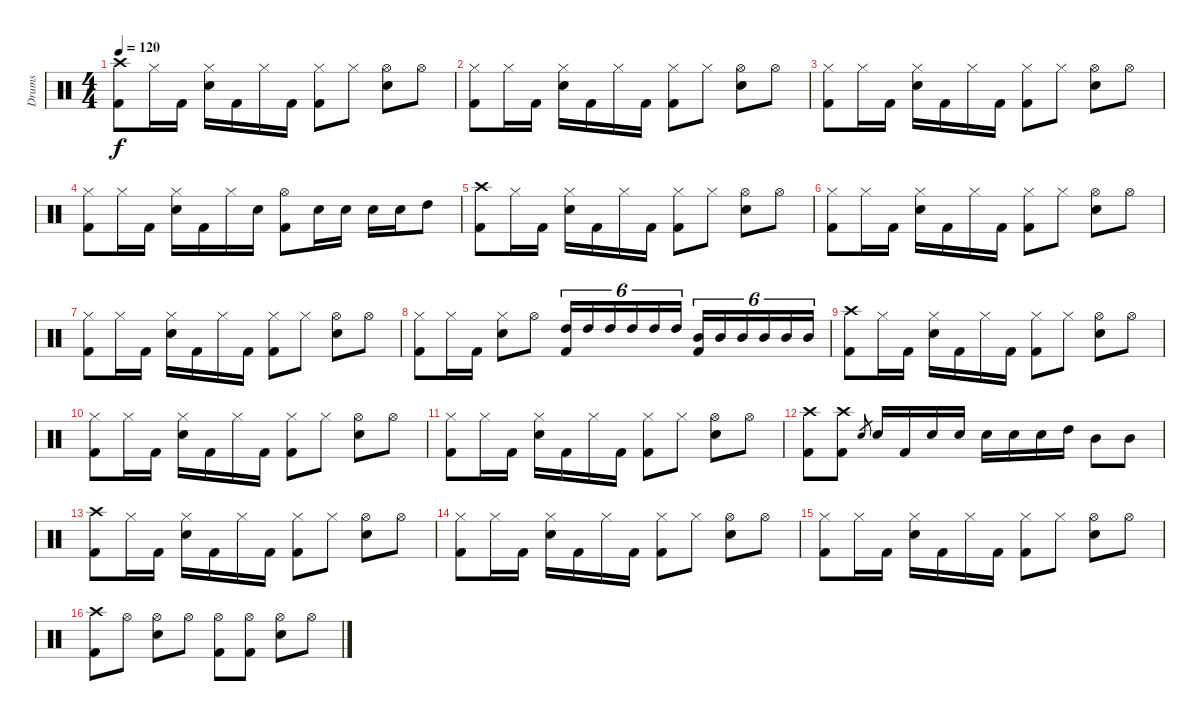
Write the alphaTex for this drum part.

\track ("Drums" "Drums") {instrument percussion}
\staff {score}
\articulation defaults
\ts (4 4)
\tempo 120
\clef neutral
\ks c
("Crash high (hit)" "Kick (hit) 2").8{dy f} "Hi-Hat (closed)".16 "Kick (hit) 2".16 ("Hi-Hat (closed)" "Electric Snare (hit)").16 "Kick (hit) 2".16 "Hi-Hat (closed)".16 "Kick (hit) 2".16 ("Hi-Hat (closed)" "Kick (hit) 2").8 "Hi-Hat (closed)".8 ("Hi-Hat (open)" "Electric Snare (hit)").8 "Hi-Hat (open)".8 |
("Hi-Hat (closed)" "Kick (hit) 2").8 "Hi-Hat (closed)".16 "Kick (hit) 2".16 ("Hi-Hat (closed)" "Electric Snare (hit)").16 "Kick (hit) 2".16 "Hi-Hat (closed)".16 "Kick (hit) 2".16 ("Hi-Hat (closed)" "Kick (hit) 2").8 "Hi-Hat (closed)".8 ("Hi-Hat (open)" "Electric Snare (hit)").8 "Hi-Hat (open)".8 |
("Hi-Hat (closed)" "Kick (hit) 2").8 "Hi-Hat (closed)".16 "Kick (hit) 2".16 ("Hi-Hat (closed)" "Electric Snare (hit)").16 "Kick (hit) 2".16 "Hi-Hat (closed)".16 "Kick (hit) 2".16 ("Hi-Hat (closed)" "Kick (hit) 2").8 "Hi-Hat (closed)".8 ("Hi-Hat (open)" "Electric Snare (hit)").8 "Hi-Hat (open)".8 |
("Hi-Hat (closed)" "Kick (hit) 2").8 "Hi-Hat (closed)".16 "Kick (hit) 2".16 ("Hi-Hat (closed)" "Electric Snare (hit)").16 "Kick (hit) 2".16 "Hi-Hat (closed)".16 "Electric Snare (hit)".16 ("Hi-Hat (open)" "Kick (hit) 2").8 "Electric Snare (hit)".16 "Electric Snare (hit)".16 "Electric Snare (hit)".16 "Electric Snare (hit)".16 "High Tom (hit)".8 |
("Crash high (hit)" "Kick (hit) 2").8 "Hi-Hat (closed)".16 "Kick (hit) 2".16 ("Hi-Hat (closed)" "Electric Snare (hit)").16 "Kick (hit) 2".16 "Hi-Hat (closed)".16 "Kick (hit) 2".16 ("Hi-Hat (closed)" "Kick (hit) 2").8 "Hi-Hat (closed)".8 ("Hi-Hat (open)" "Electric Snare (hit)").8 "Hi-Hat (open)".8 |
("Hi-Hat (closed)" "Kick (hit) 2").8 "Hi-Hat (closed)".16 "Kick (hit) 2".16 ("Hi-Hat (closed)" "Electric Snare (hit)").16 "Kick (hit) 2".16 "Hi-Hat (closed)".16 "Kick (hit) 2".16 ("Hi-Hat (closed)" "Kick (hit) 2").8 "Hi-Hat (closed)".8 ("Hi-Hat (open)" "Electric Snare (hit)").8 "Hi-Hat (open)".8 |
("Hi-Hat (closed)" "Kick (hit) 2").8 "Hi-Hat (closed)".16 "Kick (hit) 2".16 ("Hi-Hat (closed)" "Electric Snare (hit)").16 "Kick (hit) 2".16 "Hi-Hat (closed)".16 "Kick (hit) 2".16 ("Hi-Hat (closed)" "Kick (hit) 2").8 "Hi-Hat (closed)".8 ("Hi-Hat (open)" "Electric Snare (hit)").8 "Hi-Hat (open)".8 |
("Hi-Hat (closed)" "Kick (hit) 2").8 "Hi-Hat (closed)".16 "Kick (hit) 2".16 ("Hi-Hat (closed)" "Electric Snare (hit)").8 "Hi-Hat (open)".8 ("High Tom (hit)" "Kick (hit) 2").16{tu (6 4)} "High Tom (hit)".16{tu (6 4)} "High Tom (hit)".16{tu (6 4)} "High Tom (hit)".16{tu (6 4)} "High Tom (hit)".16{tu (6 4)} "High Tom (hit)".16{tu (6 4)} ("Mid Tom (hit)" "Kick (hit) 2").16{tu (6 4)} "Mid Tom (hit)".16{tu (6 4)} "Mid Tom (hit)".16{tu (6 4)} "Mid Tom (hit)".16{tu (6 4)} "Mid Tom (hit)".16{tu (6 4)} "Mid Tom (hit)".16{tu (6 4)} |
("Crash high (hit)" "Kick (hit) 2").8 "Hi-Hat (closed)".16 "Kick (hit) 2".16 ("Hi-Hat (closed)" "Electric Snare (hit)").16 "Kick (hit) 2".16 "Hi-Hat (closed)".16 "Kick (hit) 2".16 ("Hi-Hat (closed)" "Kick (hit) 2").8 "Hi-Hat (closed)".8 ("Hi-Hat (open)" "Electric Snare (hit)").8 "Hi-Hat (open)".8 |
("Hi-Hat (closed)" "Kick (hit) 2").8 "Hi-Hat (closed)".16 "Kick (hit) 2".16 ("Hi-Hat (closed)" "Electric Snare (hit)").16 "Kick (hit) 2".16 "Hi-Hat (closed)".16 "Kick (hit) 2".16 ("Hi-Hat (closed)" "Kick (hit) 2").8 "Hi-Hat (closed)".8 ("Hi-Hat (open)" "Electric Snare (hit)").8 "Hi-Hat (open)".8 |
("Hi-Hat (closed)" "Kick (hit) 2").8 "Hi-Hat (closed)".16 "Kick (hit) 2".16 ("Hi-Hat (closed)" "Electric Snare (hit)").16 "Kick (hit) 2".16 "Hi-Hat (closed)".16 "Kick (hit) 2".16 ("Hi-Hat (closed)" "Kick (hit) 2").8 "Hi-Hat (closed)".8 ("Hi-Hat (open)" "Electric Snare (hit)").8 "Hi-Hat (open)".8 |
("Crash high (hit)" "Kick (hit) 2").8 ("Crash high (hit)" "Kick (hit) 2").8 "Electric Snare (hit)".8{gr} "Electric Snare (hit)".16 "Kick (hit) 2".16 "Electric Snare (hit)".16 "Electric Snare (hit)".16 "Electric Snare (hit)".16 "Electric Snare (hit)".16 "Electric Snare (hit)".16 "High Tom (hit)".16 "Mid Tom (hit)".8 "Mid Tom (hit)".8 |
("Crash high (hit)" "Kick (hit) 2").8 "Hi-Hat (closed)".16 "Kick (hit) 2".16 ("Hi-Hat (closed)" "Electric Snare (hit)").16 "Kick (hit) 2".16 "Hi-Hat (closed)".16 "Kick (hit) 2".16 ("Hi-Hat (closed)" "Kick (hit) 2").8 "Hi-Hat (closed)".8 ("Hi-Hat (open)" "Electric Snare (hit)").8 "Hi-Hat (open)".8 |
("Hi-Hat (closed)" "Kick (hit) 2").8 "Hi-Hat (closed)".16 "Kick (hit) 2".16 ("Hi-Hat (closed)" "Electric Snare (hit)").16 "Kick (hit) 2".16 "Hi-Hat (closed)".16 "Kick (hit) 2".16 ("Hi-Hat (closed)" "Kick (hit) 2").8 "Hi-Hat (closed)".8 ("Hi-Hat (open)" "Electric Snare (hit)").8 "Hi-Hat (open)".8 |
("Hi-Hat (closed)" "Kick (hit) 2").8 "Hi-Hat (closed)".16 "Kick (hit) 2".16 ("Hi-Hat (closed)" "Electric Snare (hit)").16 "Kick (hit) 2".16 "Hi-Hat (closed)".16 "Kick (hit) 2".16 ("Hi-Hat (closed)" "Kick (hit) 2").8 "Hi-Hat (closed)".8 ("Hi-Hat (open)" "Electric Snare (hit)").8 "Hi-Hat (open)".8 |
("Crash high (hit)" "Kick (hit) 2").8 "Hi-Hat (open)".8 ("Hi-Hat (open)" "Electric Snare (hit)").8 "Hi-Hat (open)".8 ("Hi-Hat (open)" "Kick (hit) 2").8 ("Hi-Hat (open)" "Kick (hit) 2").8 ("Hi-Hat (open)" "Electric Snare (hit)").8 "Hi-Hat (open)".8
